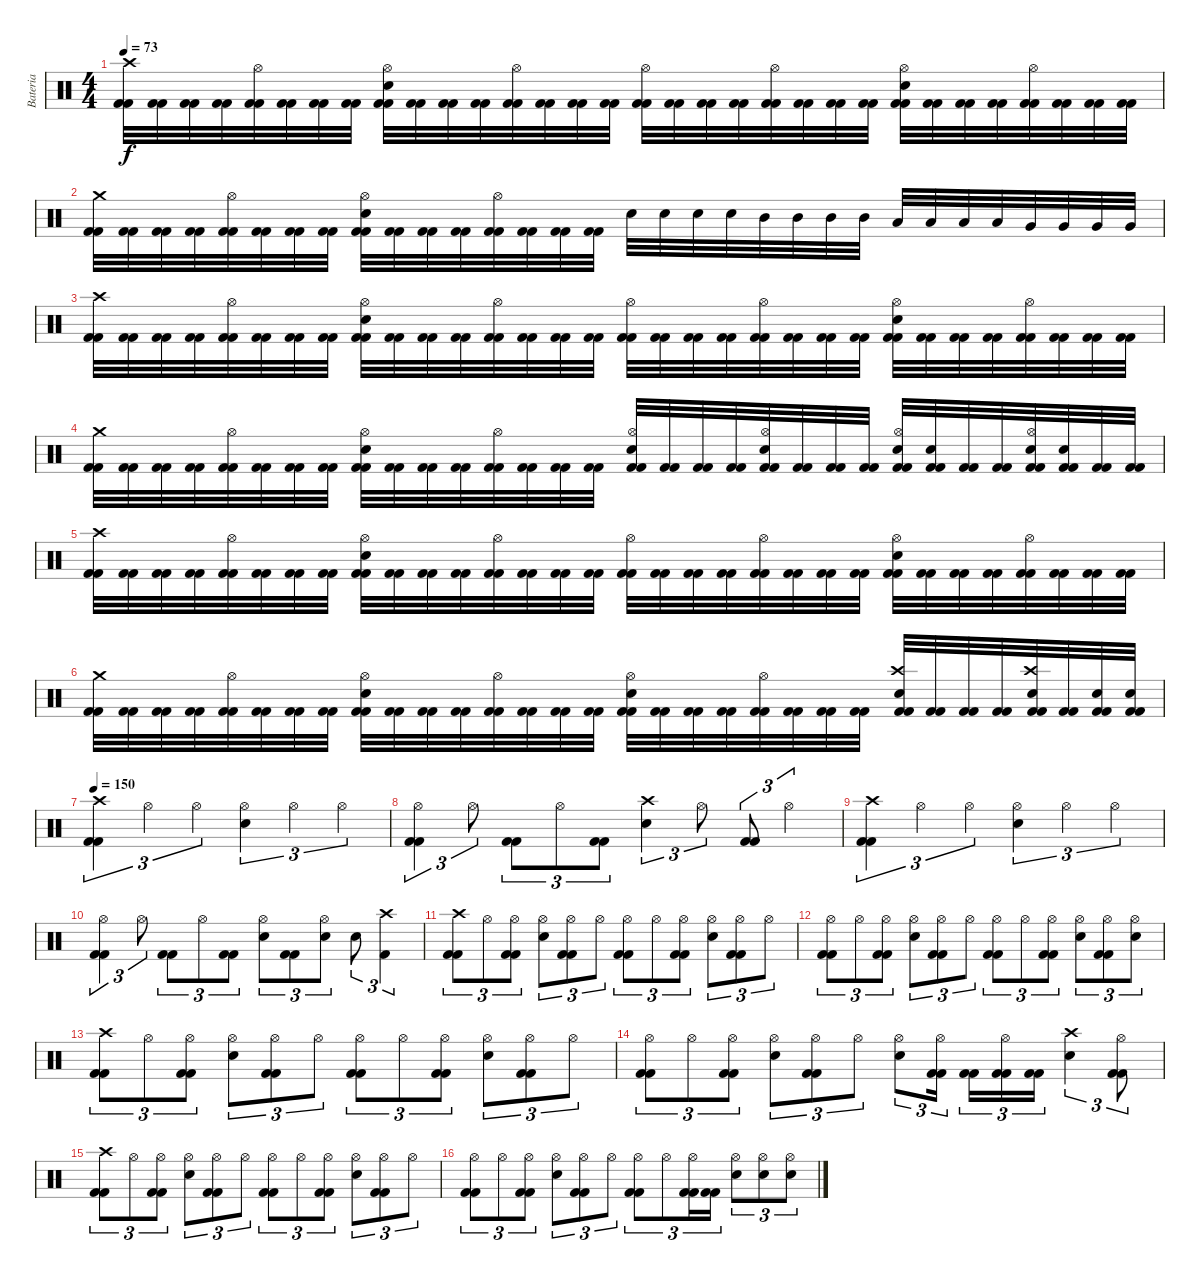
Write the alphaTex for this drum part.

\track ("Bateria" "Bateria") {instrument percussion}
\staff {score}
\articulation defaults
\ts (4 4)
\tempo 73
\clef neutral
\ks c
("Kick (hit) 2" "Kick (hit) 2" "Crash high (hit)").32{dy f} ("Kick (hit) 2" "Kick (hit) 2").32 ("Kick (hit) 2" "Kick (hit) 2").32 ("Kick (hit) 2" "Kick (hit) 2").32 ("Kick (hit) 2" "Kick (hit) 2" "Hi-Hat (open)").32 ("Kick (hit) 2" "Kick (hit) 2").32 ("Kick (hit) 2" "Kick (hit) 2").32 ("Kick (hit) 2" "Kick (hit) 2").32 ("Kick (hit) 2" "Kick (hit) 2" "Snare (hit) 2" "Hi-Hat (open)").32 ("Kick (hit) 2" "Kick (hit) 2").32 ("Kick (hit) 2" "Kick (hit) 2").32 ("Kick (hit) 2" "Kick (hit) 2").32 ("Kick (hit) 2" "Kick (hit) 2" "Hi-Hat (open)").32 ("Kick (hit) 2" "Kick (hit) 2").32 ("Kick (hit) 2" "Kick (hit) 2").32 ("Kick (hit) 2" "Kick (hit) 2").32 ("Kick (hit) 2" "Kick (hit) 2" "Hi-Hat (open)").32 ("Kick (hit) 2" "Kick (hit) 2").32 ("Kick (hit) 2" "Kick (hit) 2").32 ("Kick (hit) 2" "Kick (hit) 2").32 ("Kick (hit) 2" "Kick (hit) 2" "Hi-Hat (open)").32 ("Kick (hit) 2" "Kick (hit) 2").32 ("Kick (hit) 2" "Kick (hit) 2").32 ("Kick (hit) 2" "Kick (hit) 2").32 ("Kick (hit) 2" "Kick (hit) 2" "Snare (hit) 2" "Hi-Hat (open)").32 ("Kick (hit) 2" "Kick (hit) 2").32 ("Kick (hit) 2" "Kick (hit) 2").32 ("Kick (hit) 2" "Kick (hit) 2").32 ("Kick (hit) 2" "Kick (hit) 2" "Hi-Hat (open)").32 ("Kick (hit) 2" "Kick (hit) 2").32 ("Kick (hit) 2" "Kick (hit) 2").32 ("Kick (hit) 2" "Kick (hit) 2").32 |
("Kick (hit) 2" "Kick (hit) 2" "Crash medium (hit)").32 ("Kick (hit) 2" "Kick (hit) 2").32 ("Kick (hit) 2" "Kick (hit) 2").32 ("Kick (hit) 2" "Kick (hit) 2").32 ("Kick (hit) 2" "Kick (hit) 2" "Hi-Hat (open)").32 ("Kick (hit) 2" "Kick (hit) 2").32 ("Kick (hit) 2" "Kick (hit) 2").32 ("Kick (hit) 2" "Kick (hit) 2").32 ("Kick (hit) 2" "Kick (hit) 2" "Snare (hit) 2" "Hi-Hat (open)").32 ("Kick (hit) 2" "Kick (hit) 2").32 ("Kick (hit) 2" "Kick (hit) 2").32 ("Kick (hit) 2" "Kick (hit) 2").32 ("Kick (hit) 2" "Kick (hit) 2" "Hi-Hat (open)").32 ("Kick (hit) 2" "Kick (hit) 2").32 ("Kick (hit) 2" "Kick (hit) 2").32 ("Kick (hit) 2" "Kick (hit) 2").32 "Snare (hit) 2".32 "Snare (hit) 2".32 "Snare (hit) 2".32 "Snare (hit) 2".32 "Mid Tom (hit)".32 "Mid Tom (hit)".32 "Mid Tom (hit)".32 "Mid Tom (hit)".32 "Low Tom (hit)".32 "Low Tom (hit)".32 "Low Tom (hit)".32 "Low Tom (hit)".32 "Very Low Tom (hit)".32 "Very Low Tom (hit)".32 "Very Low Tom (hit)".32 "Very Low Tom (hit)".32 |
("Kick (hit) 2" "Kick (hit) 2" "Crash high (hit)").32 ("Kick (hit) 2" "Kick (hit) 2").32 ("Kick (hit) 2" "Kick (hit) 2").32 ("Kick (hit) 2" "Kick (hit) 2").32 ("Kick (hit) 2" "Kick (hit) 2" "Hi-Hat (open)").32 ("Kick (hit) 2" "Kick (hit) 2").32 ("Kick (hit) 2" "Kick (hit) 2").32 ("Kick (hit) 2" "Kick (hit) 2").32 ("Kick (hit) 2" "Kick (hit) 2" "Snare (hit) 2" "Hi-Hat (open)").32 ("Kick (hit) 2" "Kick (hit) 2").32 ("Kick (hit) 2" "Kick (hit) 2").32 ("Kick (hit) 2" "Kick (hit) 2").32 ("Kick (hit) 2" "Kick (hit) 2" "Hi-Hat (open)").32 ("Kick (hit) 2" "Kick (hit) 2").32 ("Kick (hit) 2" "Kick (hit) 2").32 ("Kick (hit) 2" "Kick (hit) 2").32 ("Kick (hit) 2" "Kick (hit) 2" "Hi-Hat (open)").32 ("Kick (hit) 2" "Kick (hit) 2").32 ("Kick (hit) 2" "Kick (hit) 2").32 ("Kick (hit) 2" "Kick (hit) 2").32 ("Kick (hit) 2" "Kick (hit) 2" "Hi-Hat (open)").32 ("Kick (hit) 2" "Kick (hit) 2").32 ("Kick (hit) 2" "Kick (hit) 2").32 ("Kick (hit) 2" "Kick (hit) 2").32 ("Kick (hit) 2" "Kick (hit) 2" "Snare (hit) 2" "Hi-Hat (open)").32 ("Kick (hit) 2" "Kick (hit) 2").32 ("Kick (hit) 2" "Kick (hit) 2").32 ("Kick (hit) 2" "Kick (hit) 2").32 ("Kick (hit) 2" "Kick (hit) 2" "Hi-Hat (open)").32 ("Kick (hit) 2" "Kick (hit) 2").32 ("Kick (hit) 2" "Kick (hit) 2").32 ("Kick (hit) 2" "Kick (hit) 2").32 |
("Kick (hit) 2" "Kick (hit) 2" "Crash medium (hit)").32 ("Kick (hit) 2" "Kick (hit) 2").32 ("Kick (hit) 2" "Kick (hit) 2").32 ("Kick (hit) 2" "Kick (hit) 2").32 ("Kick (hit) 2" "Kick (hit) 2" "Hi-Hat (open)").32 ("Kick (hit) 2" "Kick (hit) 2").32 ("Kick (hit) 2" "Kick (hit) 2").32 ("Kick (hit) 2" "Kick (hit) 2").32 ("Kick (hit) 2" "Kick (hit) 2" "Snare (hit) 2" "Hi-Hat (open)").32 ("Kick (hit) 2" "Kick (hit) 2").32 ("Kick (hit) 2" "Kick (hit) 2").32 ("Kick (hit) 2" "Kick (hit) 2").32 ("Kick (hit) 2" "Kick (hit) 2" "Hi-Hat (open)").32 ("Kick (hit) 2" "Kick (hit) 2").32 ("Kick (hit) 2" "Kick (hit) 2").32 ("Kick (hit) 2" "Kick (hit) 2").32 ("Kick (hit) 2" "Kick (hit) 2" "Snare (hit) 2" "Hi-Hat (open)").32 ("Kick (hit) 2" "Kick (hit) 2").32 ("Kick (hit) 2" "Kick (hit) 2").32 ("Kick (hit) 2" "Kick (hit) 2").32 ("Kick (hit) 2" "Kick (hit) 2" "Snare (hit) 2" "Hi-Hat (open)").32 ("Kick (hit) 2" "Kick (hit) 2").32 ("Kick (hit) 2" "Kick (hit) 2").32 ("Kick (hit) 2" "Kick (hit) 2").32 ("Kick (hit) 2" "Kick (hit) 2" "Snare (hit) 2" "Hi-Hat (open)").32 ("Kick (hit) 2" "Kick (hit) 2" "Snare (hit) 2").32 ("Kick (hit) 2" "Kick (hit) 2").32 ("Kick (hit) 2" "Kick (hit) 2").32 ("Kick (hit) 2" "Kick (hit) 2" "Snare (hit) 2" "Hi-Hat (open)").32 ("Kick (hit) 2" "Kick (hit) 2" "Snare (hit) 2").32 ("Kick (hit) 2" "Kick (hit) 2").32 ("Kick (hit) 2" "Kick (hit) 2").32 |
("Kick (hit) 2" "Kick (hit) 2" "Crash high (hit)").32 ("Kick (hit) 2" "Kick (hit) 2").32 ("Kick (hit) 2" "Kick (hit) 2").32 ("Kick (hit) 2" "Kick (hit) 2").32 ("Kick (hit) 2" "Kick (hit) 2" "Hi-Hat (open)").32 ("Kick (hit) 2" "Kick (hit) 2").32 ("Kick (hit) 2" "Kick (hit) 2").32 ("Kick (hit) 2" "Kick (hit) 2").32 ("Kick (hit) 2" "Kick (hit) 2" "Snare (hit) 2" "Hi-Hat (open)").32 ("Kick (hit) 2" "Kick (hit) 2").32 ("Kick (hit) 2" "Kick (hit) 2").32 ("Kick (hit) 2" "Kick (hit) 2").32 ("Kick (hit) 2" "Kick (hit) 2" "Hi-Hat (open)").32 ("Kick (hit) 2" "Kick (hit) 2").32 ("Kick (hit) 2" "Kick (hit) 2").32 ("Kick (hit) 2" "Kick (hit) 2").32 ("Kick (hit) 2" "Kick (hit) 2" "Hi-Hat (open)").32 ("Kick (hit) 2" "Kick (hit) 2").32 ("Kick (hit) 2" "Kick (hit) 2").32 ("Kick (hit) 2" "Kick (hit) 2").32 ("Kick (hit) 2" "Kick (hit) 2" "Hi-Hat (open)").32 ("Kick (hit) 2" "Kick (hit) 2").32 ("Kick (hit) 2" "Kick (hit) 2").32 ("Kick (hit) 2" "Kick (hit) 2").32 ("Kick (hit) 2" "Kick (hit) 2" "Snare (hit) 2" "Hi-Hat (open)").32 ("Kick (hit) 2" "Kick (hit) 2").32 ("Kick (hit) 2" "Kick (hit) 2").32 ("Kick (hit) 2" "Kick (hit) 2").32 ("Kick (hit) 2" "Kick (hit) 2" "Hi-Hat (open)").32 ("Kick (hit) 2" "Kick (hit) 2").32 ("Kick (hit) 2" "Kick (hit) 2").32 ("Kick (hit) 2" "Kick (hit) 2").32 |
("Kick (hit) 2" "Kick (hit) 2" "Crash medium (hit)").32 ("Kick (hit) 2" "Kick (hit) 2").32 ("Kick (hit) 2" "Kick (hit) 2").32 ("Kick (hit) 2" "Kick (hit) 2").32 ("Kick (hit) 2" "Kick (hit) 2" "Hi-Hat (open)").32 ("Kick (hit) 2" "Kick (hit) 2").32 ("Kick (hit) 2" "Kick (hit) 2").32 ("Kick (hit) 2" "Kick (hit) 2").32 ("Kick (hit) 2" "Kick (hit) 2" "Snare (hit) 2" "Hi-Hat (open)").32 ("Kick (hit) 2" "Kick (hit) 2").32 ("Kick (hit) 2" "Kick (hit) 2").32 ("Kick (hit) 2" "Kick (hit) 2").32 ("Kick (hit) 2" "Kick (hit) 2" "Hi-Hat (open)").32 ("Kick (hit) 2" "Kick (hit) 2").32 ("Kick (hit) 2" "Kick (hit) 2").32 ("Kick (hit) 2" "Kick (hit) 2").32 ("Kick (hit) 2" "Kick (hit) 2" "Snare (hit) 2" "Hi-Hat (open)").32 ("Kick (hit) 2" "Kick (hit) 2").32 ("Kick (hit) 2" "Kick (hit) 2").32 ("Kick (hit) 2" "Kick (hit) 2").32 ("Kick (hit) 2" "Kick (hit) 2" "Hi-Hat (open)").32 ("Kick (hit) 2" "Kick (hit) 2").32 ("Kick (hit) 2" "Kick (hit) 2").32 ("Kick (hit) 2" "Kick (hit) 2").32 ("Kick (hit) 2" "Kick (hit) 2" "Snare (hit) 2" "Crash high (hit)").32 ("Kick (hit) 2" "Kick (hit) 2").32 ("Kick (hit) 2" "Kick (hit) 2").32 ("Kick (hit) 2" "Kick (hit) 2").32 ("Kick (hit) 2" "Kick (hit) 2" "Snare (hit) 2" "Crash high (hit)").32 ("Kick (hit) 2" "Kick (hit) 2").32 ("Kick (hit) 2" "Kick (hit) 2" "Snare (hit) 2").32 ("Kick (hit) 2" "Kick (hit) 2" "Snare (hit) 2").32 |
\tempo 150
("Kick (hit) 2" "Kick (hit) 2" "Crash high (hit)").4{tu (3 2)} "Hi-Hat (open)".4{tu (3 2)} "Hi-Hat (open)".4{tu (3 2)} ("Snare (hit) 2" "Hi-Hat (open)").4{tu (3 2)} "Hi-Hat (open)".4{tu (3 2)} "Hi-Hat (open)".4{tu (3 2)} |
("Kick (hit) 2" "Kick (hit) 2" "Hi-Hat (open)").4{tu (3 2)} "Hi-Hat (open)".8{tu (3 2)} ("Kick (hit) 2" "Kick (hit) 2").8{tu (3 2)} "Hi-Hat (open)".8{tu (3 2)} ("Kick (hit) 2" "Kick (hit) 2").8{tu (3 2)} ("Snare (hit) 2" "Crash high (hit)").4{tu (3 2)} "Hi-Hat (open)".8{tu (3 2)} ("Kick (hit) 2" "Kick (hit) 2").8{tu (3 2)} "Hi-Hat (open)".4{tu (3 2)} |
("Kick (hit) 2" "Kick (hit) 2" "Crash high (hit)").4{tu (3 2)} "Hi-Hat (open)".4{tu (3 2)} "Hi-Hat (open)".4{tu (3 2)} ("Snare (hit) 2" "Hi-Hat (open)").4{tu (3 2)} "Hi-Hat (open)".4{tu (3 2)} "Hi-Hat (open)".4{tu (3 2)} |
("Kick (hit) 2" "Kick (hit) 2" "Hi-Hat (open)").4{tu (3 2)} "Hi-Hat (open)".8{tu (3 2)} ("Kick (hit) 2" "Kick (hit) 2").8{tu (3 2)} "Hi-Hat (open)".8{tu (3 2)} ("Kick (hit) 2" "Kick (hit) 2").8{tu (3 2)} ("Snare (hit) 2" "Hi-Hat (open)").8{tu (3 2)} ("Kick (hit) 2" "Kick (hit) 2").8{tu (3 2)} ("Snare (hit) 2" "Hi-Hat (open)").8{tu (3 2)} "Snare (hit) 2".8{tu (3 2)} ("Kick (hit) 2" "Crash high (hit)").4{tu (3 2)} |
("Kick (hit) 2" "Kick (hit) 2" "Crash high (hit)").8{tu (3 2)} "Hi-Hat (open)".8{tu (3 2)} ("Kick (hit) 2" "Kick (hit) 2" "Hi-Hat (open)").8{tu (3 2)} ("Snare (hit) 2" "Hi-Hat (open)").8{tu (3 2)} ("Kick (hit) 2" "Kick (hit) 2" "Hi-Hat (open)").8{tu (3 2)} "Hi-Hat (open)".8{tu (3 2)} ("Kick (hit) 2" "Kick (hit) 2" "Hi-Hat (open)").8{tu (3 2)} "Hi-Hat (open)".8{tu (3 2)} ("Kick (hit) 2" "Kick (hit) 2" "Hi-Hat (open)").8{tu (3 2)} ("Snare (hit) 2" "Hi-Hat (open)").8{tu (3 2)} ("Kick (hit) 2" "Kick (hit) 2" "Hi-Hat (open)").8{tu (3 2)} "Hi-Hat (open)".8{tu (3 2)} |
("Kick (hit) 2" "Kick (hit) 2" "Hi-Hat (open)").8{tu (3 2)} "Hi-Hat (open)".8{tu (3 2)} ("Kick (hit) 2" "Kick (hit) 2" "Hi-Hat (open)").8{tu (3 2)} ("Snare (hit) 2" "Hi-Hat (open)").8{tu (3 2)} ("Kick (hit) 2" "Kick (hit) 2" "Hi-Hat (open)").8{tu (3 2)} "Hi-Hat (open)".8{tu (3 2)} ("Kick (hit) 2" "Kick (hit) 2" "Hi-Hat (open)").8{tu (3 2)} "Hi-Hat (open)".8{tu (3 2)} ("Kick (hit) 2" "Kick (hit) 2" "Hi-Hat (open)").8{tu (3 2)} ("Snare (hit) 2" "Hi-Hat (open)").8{tu (3 2)} ("Kick (hit) 2" "Kick (hit) 2" "Hi-Hat (open)").8{tu (3 2)} ("Snare (hit) 2" "Hi-Hat (open)").8{tu (3 2)} |
("Kick (hit) 2" "Kick (hit) 2" "Crash high (hit)").8{tu (3 2)} "Hi-Hat (open)".8{tu (3 2)} ("Kick (hit) 2" "Kick (hit) 2" "Hi-Hat (open)").8{tu (3 2)} ("Snare (hit) 2" "Hi-Hat (open)").8{tu (3 2)} ("Kick (hit) 2" "Kick (hit) 2" "Hi-Hat (open)").8{tu (3 2)} "Hi-Hat (open)".8{tu (3 2)} ("Kick (hit) 2" "Kick (hit) 2" "Hi-Hat (open)").8{tu (3 2)} "Hi-Hat (open)".8{tu (3 2)} ("Kick (hit) 2" "Kick (hit) 2" "Hi-Hat (open)").8{tu (3 2)} ("Snare (hit) 2" "Hi-Hat (open)").8{tu (3 2)} ("Kick (hit) 2" "Kick (hit) 2" "Hi-Hat (open)").8{tu (3 2)} "Hi-Hat (open)".8{tu (3 2)} |
("Kick (hit) 2" "Kick (hit) 2" "Hi-Hat (open)").8{tu (3 2)} "Hi-Hat (open)".8{tu (3 2)} ("Kick (hit) 2" "Kick (hit) 2" "Hi-Hat (open)").8{tu (3 2)} ("Snare (hit) 2" "Hi-Hat (open)").8{tu (3 2)} ("Kick (hit) 2" "Kick (hit) 2" "Hi-Hat (open)").8{tu (3 2)} "Hi-Hat (open)".8{tu (3 2)} ("Snare (hit) 2" "Hi-Hat (open)").8{tu (3 2)} ("Kick (hit) 2" "Kick (hit) 2" "Hi-Hat (open)").16{tu (3 2)} ("Kick (hit) 2" "Kick (hit) 2").16{tu (3 2)} ("Kick (hit) 2" "Kick (hit) 2" "Hi-Hat (open)").16{tu (3 2)} ("Kick (hit) 2" "Kick (hit) 2").16{tu (3 2)} ("Snare (hit) 2" "Crash high (hit)").4{tu (3 2)} ("Kick (hit) 2" "Kick (hit) 2" "Hi-Hat (open)").8{tu (3 2)} |
("Kick (hit) 2" "Kick (hit) 2" "Crash high (hit)").8{tu (3 2)} "Hi-Hat (open)".8{tu (3 2)} ("Kick (hit) 2" "Kick (hit) 2" "Hi-Hat (open)").8{tu (3 2)} ("Snare (hit) 2" "Hi-Hat (open)").8{tu (3 2)} ("Kick (hit) 2" "Kick (hit) 2" "Hi-Hat (open)").8{tu (3 2)} "Hi-Hat (open)".8{tu (3 2)} ("Kick (hit) 2" "Kick (hit) 2" "Hi-Hat (open)").8{tu (3 2)} "Hi-Hat (open)".8{tu (3 2)} ("Kick (hit) 2" "Kick (hit) 2" "Hi-Hat (open)").8{tu (3 2)} ("Snare (hit) 2" "Hi-Hat (open)").8{tu (3 2)} ("Kick (hit) 2" "Kick (hit) 2" "Hi-Hat (open)").8{tu (3 2)} "Hi-Hat (open)".8{tu (3 2)} |
("Kick (hit) 2" "Kick (hit) 2" "Hi-Hat (open)").8{tu (3 2)} "Hi-Hat (open)".8{tu (3 2)} ("Kick (hit) 2" "Kick (hit) 2" "Hi-Hat (open)").8{tu (3 2)} ("Snare (hit) 2" "Hi-Hat (open)").8{tu (3 2)} ("Kick (hit) 2" "Kick (hit) 2" "Hi-Hat (open)").8{tu (3 2)} "Hi-Hat (open)".8{tu (3 2)} ("Kick (hit) 2" "Kick (hit) 2" "Hi-Hat (open)").8{tu (3 2)} "Hi-Hat (open)".8{tu (3 2)} ("Kick (hit) 2" "Kick (hit) 2" "Hi-Hat (open)").16{tu (3 2)} ("Kick (hit) 2" "Kick (hit) 2").16{tu (3 2)} ("Snare (hit) 2" "Hi-Hat (open)").8{tu (3 2)} ("Snare (hit) 2" "Hi-Hat (open)").8{tu (3 2)} ("Snare (hit) 2" "Hi-Hat (open)").8{tu (3 2)}
